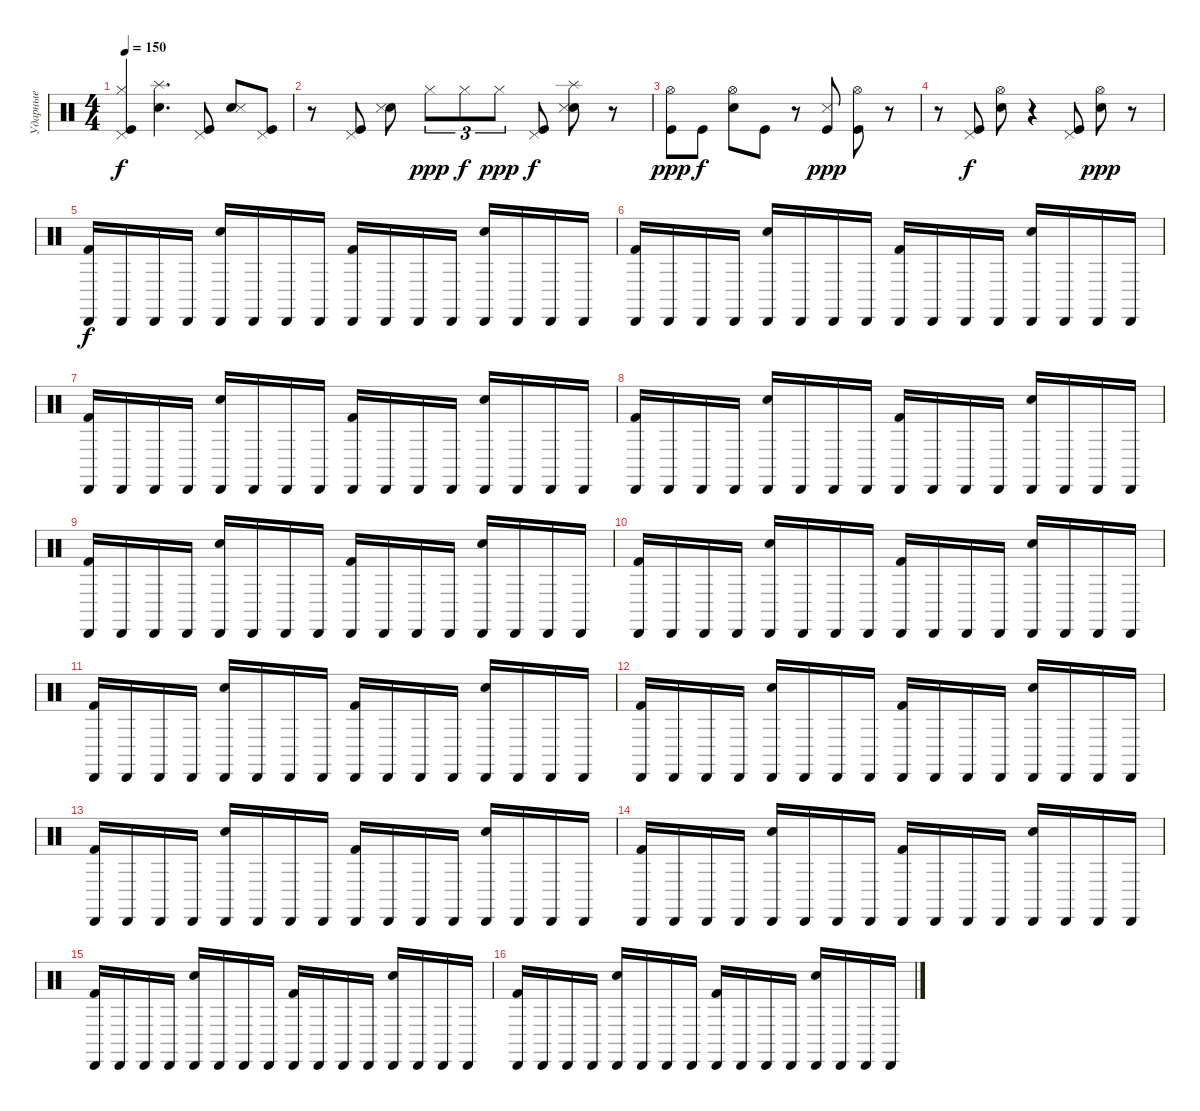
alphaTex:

\track ("Ударные" "Ударные") {instrument percussion}
\staff {score}
\articulation defaults
\ts (4 4)
\tempo 150
\clef neutral
\ks c
("Kick (hit)" "Hi-Hat (closed)" "Pedal Hi-Hat (hit)").4{dy f} ("Snare (hit) 2" "Splash (hit)").4{d} ("Kick (hit)" "Pedal Hi-Hat (hit)").8 ("Snare (hit) 2" "Snare (side stick) 3").8 ("Kick (hit)" "Pedal Hi-Hat (hit)").8 |
r.8 ("Kick (hit)" "Pedal Hi-Hat (hit)").8 ("Snare (hit) 2" "Snare (side stick) 3").8 "Hi-Hat (closed)".8{tu (3 2) dy ppp} "Hi-Hat (closed)".8{tu (3 2) dy f} "Hi-Hat (closed)".8{tu (3 2) dy ppp} ("Kick (hit)" "Pedal Hi-Hat (hit)").8{dy f} ("Snare (hit) 2" "Snare (side stick) 3" "Splash (hit)").8 r.8 |
("Hi-Hat (open)" "Kick (hit)").8{dy ppp} "Kick (hit)".8{dy f} ("Hi-Hat (open)" "Snare (hit) 2").8 "Kick (hit)".8 r.8 ("Snare (side stick) 3" "Kick (hit)").8{dy ppp} ("Hi-Hat (open)" "Kick (hit)").8 r.8 |
r.8 ("Kick (hit)" "Pedal Hi-Hat (hit)").8{dy f} ("Hi-Hat (open)" "Snare (hit) 2").8 r.4 ("Kick (hit)" "Pedal Hi-Hat (hit)").8 ("Hi-Hat (open)" "Snare (hit) 2").8{dy ppp} r.8 |
("Kick (hit) 2" "Cabasa (hit)").16{dy f} "Cabasa (hit)".16 "Cabasa (hit)".16 "Cabasa (hit)".16 ("Snare (hit) 2" "Cabasa (hit)").16 "Cabasa (hit)".16 "Cabasa (hit)".16 "Cabasa (hit)".16 ("Kick (hit) 2" "Cabasa (hit)").16 "Cabasa (hit)".16 "Cabasa (hit)".16 "Cabasa (hit)".16 ("Snare (hit) 2" "Cabasa (hit)").16 "Cabasa (hit)".16 "Cabasa (hit)".16 "Cabasa (hit)".16 |
("Kick (hit) 2" "Cabasa (hit)").16 "Cabasa (hit)".16 "Cabasa (hit)".16 "Cabasa (hit)".16 ("Snare (hit) 2" "Cabasa (hit)").16 "Cabasa (hit)".16 "Cabasa (hit)".16 "Cabasa (hit)".16 ("Kick (hit) 2" "Cabasa (hit)").16 "Cabasa (hit)".16 "Cabasa (hit)".16 "Cabasa (hit)".16 ("Snare (hit) 2" "Cabasa (hit)").16 "Cabasa (hit)".16 "Cabasa (hit)".16 "Cabasa (hit)".16 |
("Kick (hit) 2" "Cabasa (hit)").16 "Cabasa (hit)".16 "Cabasa (hit)".16 "Cabasa (hit)".16 ("Snare (hit) 2" "Cabasa (hit)").16 "Cabasa (hit)".16 "Cabasa (hit)".16 "Cabasa (hit)".16 ("Kick (hit) 2" "Cabasa (hit)").16 "Cabasa (hit)".16 "Cabasa (hit)".16 "Cabasa (hit)".16 ("Snare (hit) 2" "Cabasa (hit)").16 "Cabasa (hit)".16 "Cabasa (hit)".16 "Cabasa (hit)".16 |
("Kick (hit) 2" "Cabasa (hit)").16 "Cabasa (hit)".16 "Cabasa (hit)".16 "Cabasa (hit)".16 ("Snare (hit) 2" "Cabasa (hit)").16 "Cabasa (hit)".16 "Cabasa (hit)".16 "Cabasa (hit)".16 ("Kick (hit) 2" "Cabasa (hit)").16 "Cabasa (hit)".16 "Cabasa (hit)".16 "Cabasa (hit)".16 ("Snare (hit) 2" "Cabasa (hit)").16 "Cabasa (hit)".16 "Cabasa (hit)".16 "Cabasa (hit)".16 |
("Kick (hit) 2" "Cabasa (hit)").16 "Cabasa (hit)".16 "Cabasa (hit)".16 "Cabasa (hit)".16 ("Snare (hit) 2" "Cabasa (hit)").16 "Cabasa (hit)".16 "Cabasa (hit)".16 "Cabasa (hit)".16 ("Kick (hit) 2" "Cabasa (hit)").16 "Cabasa (hit)".16 "Cabasa (hit)".16 "Cabasa (hit)".16 ("Snare (hit) 2" "Cabasa (hit)").16 "Cabasa (hit)".16 "Cabasa (hit)".16 "Cabasa (hit)".16 |
("Kick (hit) 2" "Cabasa (hit)").16 "Cabasa (hit)".16 "Cabasa (hit)".16 "Cabasa (hit)".16 ("Snare (hit) 2" "Cabasa (hit)").16 "Cabasa (hit)".16 "Cabasa (hit)".16 "Cabasa (hit)".16 ("Kick (hit) 2" "Cabasa (hit)").16 "Cabasa (hit)".16 "Cabasa (hit)".16 "Cabasa (hit)".16 ("Snare (hit) 2" "Cabasa (hit)").16 "Cabasa (hit)".16 "Cabasa (hit)".16 "Cabasa (hit)".16 |
("Kick (hit) 2" "Cabasa (hit)").16 "Cabasa (hit)".16 "Cabasa (hit)".16 "Cabasa (hit)".16 ("Snare (hit) 2" "Cabasa (hit)").16 "Cabasa (hit)".16 "Cabasa (hit)".16 "Cabasa (hit)".16 ("Kick (hit) 2" "Cabasa (hit)").16 "Cabasa (hit)".16 "Cabasa (hit)".16 "Cabasa (hit)".16 ("Snare (hit) 2" "Cabasa (hit)").16 "Cabasa (hit)".16 "Cabasa (hit)".16 "Cabasa (hit)".16 |
("Kick (hit) 2" "Cabasa (hit)").16 "Cabasa (hit)".16 "Cabasa (hit)".16 "Cabasa (hit)".16 ("Snare (hit) 2" "Cabasa (hit)").16 "Cabasa (hit)".16 "Cabasa (hit)".16 "Cabasa (hit)".16 ("Kick (hit) 2" "Cabasa (hit)").16 "Cabasa (hit)".16 "Cabasa (hit)".16 "Cabasa (hit)".16 ("Snare (hit) 2" "Cabasa (hit)").16 "Cabasa (hit)".16 "Cabasa (hit)".16 "Cabasa (hit)".16 |
("Kick (hit) 2" "Cabasa (hit)").16 "Cabasa (hit)".16 "Cabasa (hit)".16 "Cabasa (hit)".16 ("Snare (hit) 2" "Cabasa (hit)").16 "Cabasa (hit)".16 "Cabasa (hit)".16 "Cabasa (hit)".16 ("Kick (hit) 2" "Cabasa (hit)").16 "Cabasa (hit)".16 "Cabasa (hit)".16 "Cabasa (hit)".16 ("Snare (hit) 2" "Cabasa (hit)").16 "Cabasa (hit)".16 "Cabasa (hit)".16 "Cabasa (hit)".16 |
("Kick (hit) 2" "Cabasa (hit)").16 "Cabasa (hit)".16 "Cabasa (hit)".16 "Cabasa (hit)".16 ("Snare (hit) 2" "Cabasa (hit)").16 "Cabasa (hit)".16 "Cabasa (hit)".16 "Cabasa (hit)".16 ("Kick (hit) 2" "Cabasa (hit)").16 "Cabasa (hit)".16 "Cabasa (hit)".16 "Cabasa (hit)".16 ("Snare (hit) 2" "Cabasa (hit)").16 "Cabasa (hit)".16 "Cabasa (hit)".16 "Cabasa (hit)".16 |
("Kick (hit) 2" "Cabasa (hit)").16 "Cabasa (hit)".16 "Cabasa (hit)".16 "Cabasa (hit)".16 ("Snare (hit) 2" "Cabasa (hit)").16 "Cabasa (hit)".16 "Cabasa (hit)".16 "Cabasa (hit)".16 ("Kick (hit) 2" "Cabasa (hit)").16 "Cabasa (hit)".16 "Cabasa (hit)".16 "Cabasa (hit)".16 ("Snare (hit) 2" "Cabasa (hit)").16 "Cabasa (hit)".16 "Cabasa (hit)".16 "Cabasa (hit)".16 |
("Kick (hit) 2" "Cabasa (hit)").16 "Cabasa (hit)".16 "Cabasa (hit)".16 "Cabasa (hit)".16 ("Snare (hit) 2" "Cabasa (hit)").16 "Cabasa (hit)".16 "Cabasa (hit)".16 "Cabasa (hit)".16 ("Kick (hit) 2" "Cabasa (hit)").16 "Cabasa (hit)".16 "Cabasa (hit)".16 "Cabasa (hit)".16 ("Snare (hit) 2" "Cabasa (hit)").16 "Cabasa (hit)".16 "Cabasa (hit)".16 "Cabasa (hit)".16
